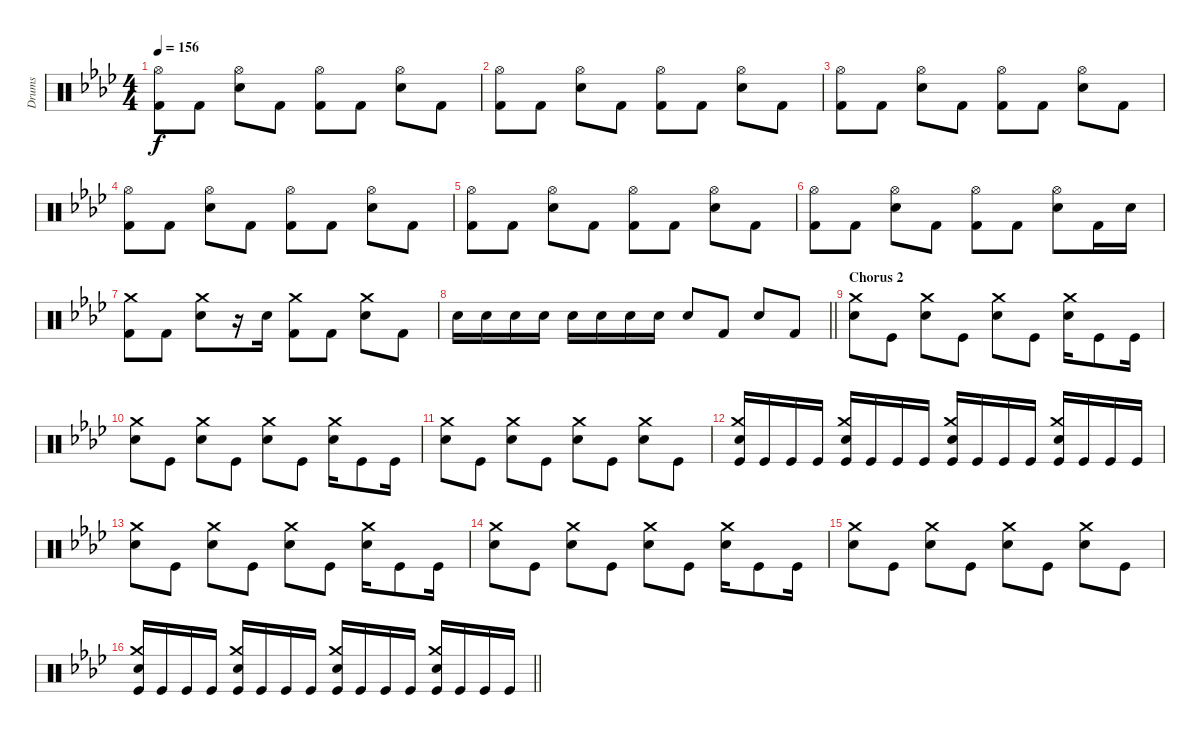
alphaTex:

\track ("Drums" "Drums") {instrument percussion}
\staff {score}
\articulation defaults
\ts (4 4)
\tempo 156
\clef neutral
\ks fminor
("Kick (hit) 2" "Hi-Hat (open)").8{dy f} "Kick (hit) 2".8 ("Electric Snare (hit)" "Hi-Hat (open)").8 "Kick (hit) 2".8 ("Kick (hit) 2" "Hi-Hat (open)").8 "Kick (hit) 2".8 ("Electric Snare (hit)" "Hi-Hat (open)").8 "Kick (hit) 2".8 |
("Kick (hit) 2" "Hi-Hat (open)").8 "Kick (hit) 2".8 ("Electric Snare (hit)" "Hi-Hat (open)").8 "Kick (hit) 2".8 ("Kick (hit) 2" "Hi-Hat (open)").8 "Kick (hit) 2".8 ("Electric Snare (hit)" "Hi-Hat (open)").8 "Kick (hit) 2".8 |
("Kick (hit) 2" "Hi-Hat (open)").8 "Kick (hit) 2".8 ("Electric Snare (hit)" "Hi-Hat (open)").8 "Kick (hit) 2".8 ("Kick (hit) 2" "Hi-Hat (open)").8 "Kick (hit) 2".8 ("Electric Snare (hit)" "Hi-Hat (open)").8 "Kick (hit) 2".8 |
("Kick (hit) 2" "Hi-Hat (open)").8 "Kick (hit) 2".8 ("Electric Snare (hit)" "Hi-Hat (open)").8 "Kick (hit) 2".8 ("Kick (hit) 2" "Hi-Hat (open)").8 "Kick (hit) 2".8 ("Electric Snare (hit)" "Hi-Hat (open)").8 "Kick (hit) 2".8 |
("Kick (hit) 2" "Hi-Hat (open)").8 "Kick (hit) 2".8 ("Electric Snare (hit)" "Hi-Hat (open)").8 "Kick (hit) 2".8 ("Kick (hit) 2" "Hi-Hat (open)").8 "Kick (hit) 2".8 ("Electric Snare (hit)" "Hi-Hat (open)").8 "Kick (hit) 2".8 |
("Kick (hit) 2" "Hi-Hat (open)").8 "Kick (hit) 2".8 ("Electric Snare (hit)" "Hi-Hat (open)").8 "Kick (hit) 2".8 ("Kick (hit) 2" "Hi-Hat (open)").8 "Kick (hit) 2".8 ("Electric Snare (hit)" "Hi-Hat (open)").8 "Kick (hit) 2".16 "Electric Snare (hit)".16 |
("Kick (hit) 2" "Crash medium (hit)").8 "Kick (hit) 2".8 ("Electric Snare (hit)" "Crash medium (hit)").8 r.16 "Electric Snare (hit)".16 ("Kick (hit) 2" "Crash medium (hit)").8 "Kick (hit) 2".8 ("Electric Snare (hit)" "Crash medium (hit)").8 "Kick (hit) 2".8 |
\barLineRight lightlight "Electric Snare (hit)".16 "Electric Snare (hit)".16 "Electric Snare (hit)".16 "Electric Snare (hit)".16 "Electric Snare (hit)".16 "Electric Snare (hit)".16 "Electric Snare (hit)".16 "Electric Snare (hit)".16 "Electric Snare (hit)".8 "Kick (hit) 2".8 "Electric Snare (hit)".8 "Kick (hit) 2".8
|
\section ("" "Chorus 2")
("Electric Snare (hit)" "Crash medium (hit)").8 "Kick (hit)".8 ("Electric Snare (hit)" "Crash medium (hit)").8 "Kick (hit)".8 ("Electric Snare (hit)" "Crash medium (hit)").8 "Kick (hit)".8 ("Electric Snare (hit)" "Crash medium (hit)").16 "Kick (hit)".8 "Kick (hit)".16 |
("Electric Snare (hit)" "Crash medium (hit)").8 "Kick (hit)".8 ("Electric Snare (hit)" "Crash medium (hit)").8 "Kick (hit)".8 ("Electric Snare (hit)" "Crash medium (hit)").8 "Kick (hit)".8 ("Electric Snare (hit)" "Crash medium (hit)").16 "Kick (hit)".8 "Kick (hit)".16 |
("Electric Snare (hit)" "Crash medium (hit)").8 "Kick (hit)".8 ("Electric Snare (hit)" "Crash medium (hit)").8 "Kick (hit)".8 ("Electric Snare (hit)" "Crash medium (hit)").8 "Kick (hit)".8 ("Electric Snare (hit)" "Crash medium (hit)").8 "Kick (hit)".8 |
("Kick (hit)" "Electric Snare (hit)" "Crash medium (hit)").16 "Kick (hit)".16 "Kick (hit)".16 "Kick (hit)".16 ("Kick (hit)" "Electric Snare (hit)" "Crash medium (hit)").16 "Kick (hit)".16 "Kick (hit)".16 "Kick (hit)".16 ("Kick (hit)" "Electric Snare (hit)" "Crash medium (hit)").16 "Kick (hit)".16 "Kick (hit)".16 "Kick (hit)".16 ("Kick (hit)" "Electric Snare (hit)" "Crash medium (hit)").16 "Kick (hit)".16 "Kick (hit)".16 "Kick (hit)".16 |
("Electric Snare (hit)" "Crash medium (hit)").8 "Kick (hit)".8 ("Electric Snare (hit)" "Crash medium (hit)").8 "Kick (hit)".8 ("Electric Snare (hit)" "Crash medium (hit)").8 "Kick (hit)".8 ("Electric Snare (hit)" "Crash medium (hit)").16 "Kick (hit)".8 "Kick (hit)".16 |
("Electric Snare (hit)" "Crash medium (hit)").8 "Kick (hit)".8 ("Electric Snare (hit)" "Crash medium (hit)").8 "Kick (hit)".8 ("Electric Snare (hit)" "Crash medium (hit)").8 "Kick (hit)".8 ("Electric Snare (hit)" "Crash medium (hit)").16 "Kick (hit)".8 "Kick (hit)".16 |
("Electric Snare (hit)" "Crash medium (hit)").8 "Kick (hit)".8 ("Electric Snare (hit)" "Crash medium (hit)").8 "Kick (hit)".8 ("Electric Snare (hit)" "Crash medium (hit)").8 "Kick (hit)".8 ("Electric Snare (hit)" "Crash medium (hit)").8 "Kick (hit)".8 |
\barLineRight lightlight
("Kick (hit)" "Electric Snare (hit)" "Crash medium (hit)").16 "Kick (hit)".16 "Kick (hit)".16 "Kick (hit)".16 ("Kick (hit)" "Electric Snare (hit)" "Crash medium (hit)").16 "Kick (hit)".16 "Kick (hit)".16 "Kick (hit)".16 ("Kick (hit)" "Electric Snare (hit)" "Crash medium (hit)").16 "Kick (hit)".16 "Kick (hit)".16 "Kick (hit)".16 ("Kick (hit)" "Electric Snare (hit)" "Crash medium (hit)").16 "Kick (hit)".16 "Kick (hit)".16 "Kick (hit)".16
